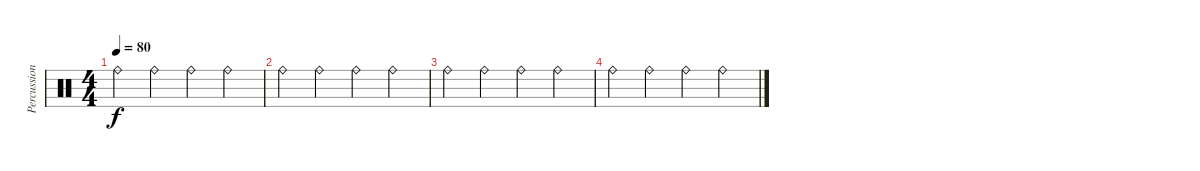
\track ("Percussion" "Percussion") {instrument percussion}
\staff {score}
\articulation defaults
\ts (4 4)
\tempo 80
\clef neutral
\ks c "Ride (bell)".4{dy f} "Ride (bell)".4 "Ride (bell)".4 "Ride (bell)".4
|
"Ride (bell)".4 "Ride (bell)".4 "Ride (bell)".4 "Ride (bell)".4 |
"Ride (bell)".4 "Ride (bell)".4 "Ride (bell)".4 "Ride (bell)".4 |
"Ride (bell)".4 "Ride (bell)".4 "Ride (bell)".4 "Ride (bell)".4
